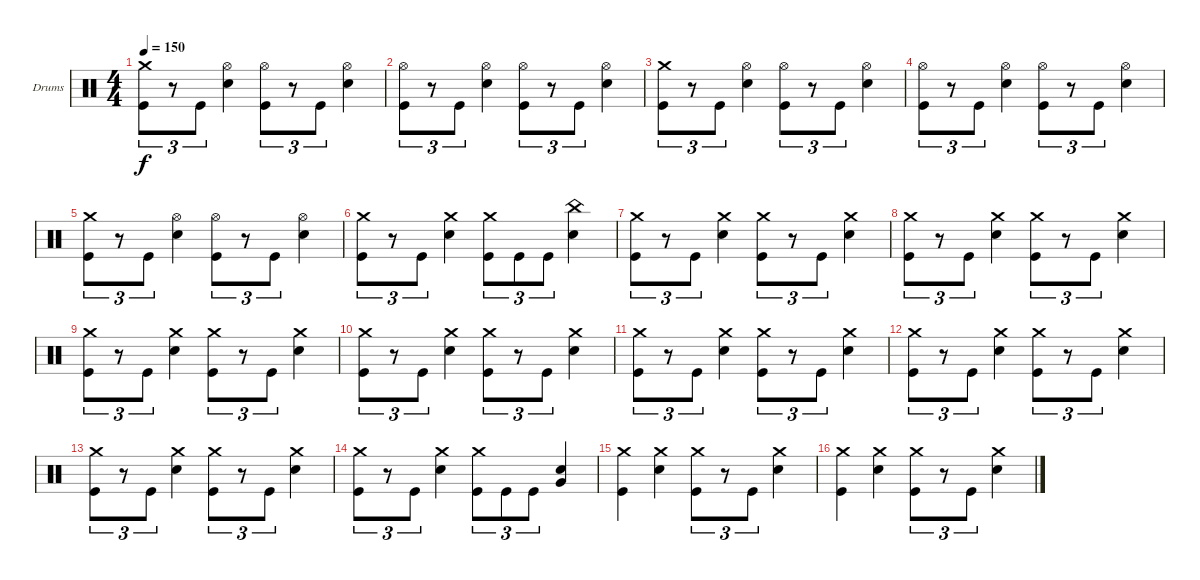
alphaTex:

\defaultSystemsLayout 4
\bracketExtendMode groupsimilarinstruments
\firstSystemTrackNameOrientation horizontal
\otherSystemsTrackNameOrientation horizontal
\track ("Drumkit" "Drums") {instrument percussion}
\staff {score}
\articulation defaults
\ts (4 4)
\tempo 150
\clef neutral
\ks c
("Kick (hit)" "Crash medium (hit)").8{tu (3 2) dy f} r.8{tu (3 2)} "Kick (hit)".8{tu (3 2)} ("Snare (hit) 2" "Hi-Hat (open)").4 ("Kick (hit)" "Hi-Hat (open)").8{tu (3 2)} r.8{tu (3 2)} "Kick (hit)".8{tu (3 2)} ("Snare (hit) 2" "Hi-Hat (open)").4 |
("Kick (hit)" "Hi-Hat (open)").8{tu (3 2)} r.8{tu (3 2)} "Kick (hit)".8{tu (3 2)} ("Snare (hit) 2" "Hi-Hat (open)").4 ("Kick (hit)" "Hi-Hat (open)").8{tu (3 2)} r.8{tu (3 2)} "Kick (hit)".8{tu (3 2)} ("Snare (hit) 2" "Hi-Hat (open)").4 |
("Kick (hit)" "Crash medium (hit)").8{tu (3 2)} r.8{tu (3 2)} "Kick (hit)".8{tu (3 2)} ("Snare (hit) 2" "Hi-Hat (open)").4 ("Kick (hit)" "Hi-Hat (open)").8{tu (3 2)} r.8{tu (3 2)} "Kick (hit)".8{tu (3 2)} ("Snare (hit) 2" "Hi-Hat (open)").4 |
("Kick (hit)" "Hi-Hat (open)").8{tu (3 2)} r.8{tu (3 2)} "Kick (hit)".8{tu (3 2)} ("Snare (hit) 2" "Hi-Hat (open)").4 ("Kick (hit)" "Hi-Hat (open)").8{tu (3 2)} r.8{tu (3 2)} "Kick (hit)".8{tu (3 2)} ("Snare (hit) 2" "Hi-Hat (open)").4 |
("Kick (hit)" "Crash medium (hit)").8{tu (3 2)} r.8{tu (3 2)} "Kick (hit)".8{tu (3 2)} ("Snare (hit) 2" "Hi-Hat (open)").4 ("Kick (hit)" "Hi-Hat (open)").8{tu (3 2)} r.8{tu (3 2)} "Kick (hit)".8{tu (3 2)} ("Snare (hit) 2" "Hi-Hat (open)").4 |
("Kick (hit)" "Crash medium (hit)").8{tu (3 2)} r.8{tu (3 2)} "Kick (hit)".8{tu (3 2)} ("Snare (hit) 2" "Crash medium (hit)").4 ("Kick (hit)" "Crash medium (hit)").8{tu (3 2)} "Kick (hit)".8{tu (3 2)} "Kick (hit)".8{tu (3 2)} ("Snare (hit) 2" "China (hit)").4 |
("Kick (hit)" "Crash medium (hit)").8{tu (3 2)} r.8{tu (3 2)} "Kick (hit)".8{tu (3 2)} ("Snare (hit) 2" "Crash medium (hit)").4 ("Kick (hit)" "Crash medium (hit)").8{tu (3 2)} r.8{tu (3 2)} "Kick (hit)".8{tu (3 2)} ("Snare (hit) 2" "Crash medium (hit)").4 |
("Kick (hit)" "Crash medium (hit)").8{tu (3 2)} r.8{tu (3 2)} "Kick (hit)".8{tu (3 2)} ("Snare (hit) 2" "Crash medium (hit)").4 ("Kick (hit)" "Crash medium (hit)").8{tu (3 2)} r.8{tu (3 2)} "Kick (hit)".8{tu (3 2)} ("Snare (hit) 2" "Crash medium (hit)").4 |
("Kick (hit)" "Crash medium (hit)").8{tu (3 2)} r.8{tu (3 2)} "Kick (hit)".8{tu (3 2)} ("Snare (hit) 2" "Crash medium (hit)").4 ("Kick (hit)" "Crash medium (hit)").8{tu (3 2)} r.8{tu (3 2)} "Kick (hit)".8{tu (3 2)} ("Snare (hit) 2" "Crash medium (hit)").4 |
("Kick (hit)" "Crash medium (hit)").8{tu (3 2)} r.8{tu (3 2)} "Kick (hit)".8{tu (3 2)} ("Snare (hit) 2" "Crash medium (hit)").4 ("Kick (hit)" "Crash medium (hit)").8{tu (3 2)} r.8{tu (3 2)} "Kick (hit)".8{tu (3 2)} ("Snare (hit) 2" "Crash medium (hit)").4 |
("Kick (hit)" "Crash medium (hit)").8{tu (3 2)} r.8{tu (3 2)} "Kick (hit)".8{tu (3 2)} ("Snare (hit) 2" "Crash medium (hit)").4 ("Kick (hit)" "Crash medium (hit)").8{tu (3 2)} r.8{tu (3 2)} "Kick (hit)".8{tu (3 2)} ("Snare (hit) 2" "Crash medium (hit)").4 |
("Kick (hit)" "Crash medium (hit)").8{tu (3 2)} r.8{tu (3 2)} "Kick (hit)".8{tu (3 2)} ("Snare (hit) 2" "Crash medium (hit)").4 ("Kick (hit)" "Crash medium (hit)").8{tu (3 2)} r.8{tu (3 2)} "Kick (hit)".8{tu (3 2)} ("Snare (hit) 2" "Crash medium (hit)").4 |
("Kick (hit)" "Crash medium (hit)").8{tu (3 2)} r.8{tu (3 2)} "Kick (hit)".8{tu (3 2)} ("Snare (hit) 2" "Crash medium (hit)").4 ("Kick (hit)" "Crash medium (hit)").8{tu (3 2)} r.8{tu (3 2)} "Kick (hit)".8{tu (3 2)} ("Snare (hit) 2" "Crash medium (hit)").4 |
("Kick (hit)" "Crash medium (hit)").8{tu (3 2)} r.8{tu (3 2)} "Kick (hit)".8{tu (3 2)} ("Snare (hit) 2" "Crash medium (hit)").4 ("Kick (hit)" "Crash medium (hit)").8{tu (3 2)} "Kick (hit)".8{tu (3 2)} "Kick (hit)".8{tu (3 2)} ("Snare (hit) 2" "Very Low Tom (hit)").4 |
("Kick (hit)" "Crash medium (hit)").4 ("Snare (hit) 2" "Crash medium (hit)").4 ("Kick (hit)" "Crash medium (hit)").8{tu (3 2)} r.8{tu (3 2)} "Kick (hit)".8{tu (3 2)} ("Snare (hit) 2" "Crash medium (hit)").4 |
("Kick (hit)" "Crash medium (hit)").4 ("Snare (hit) 2" "Crash medium (hit)").4 ("Kick (hit)" "Crash medium (hit)").8{tu (3 2)} r.8{tu (3 2)} "Kick (hit)".8{tu (3 2)} ("Snare (hit) 2" "Crash medium (hit)").4
